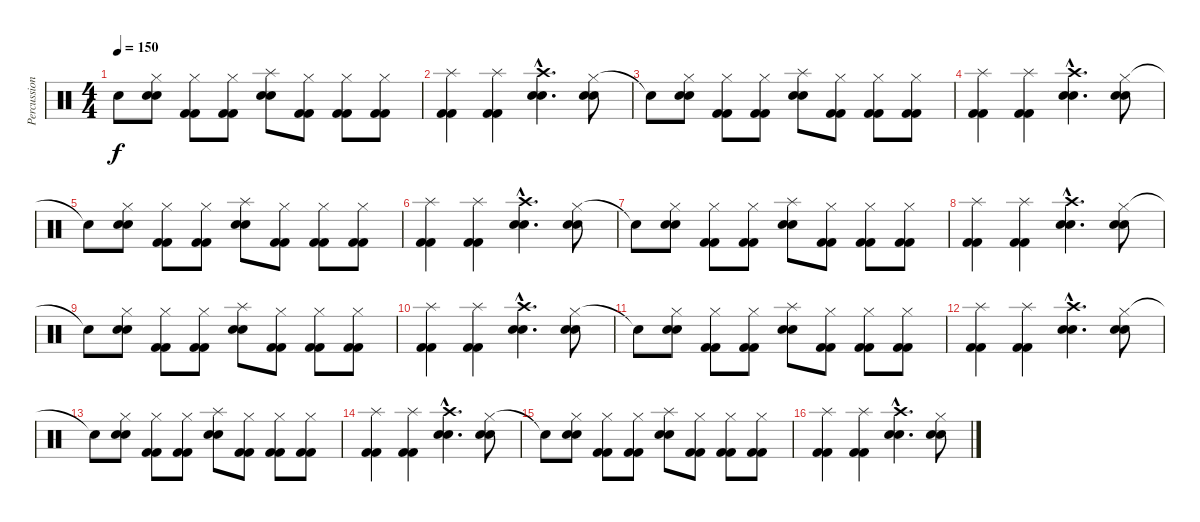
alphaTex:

\track ("Percussion" "Percussion") {instrument percussion}
\staff {score}
\articulation defaults
\ts (4 4)
\tempo 150
\clef neutral
\ks c "Snare (hit) 2"{t}.8{dy f}
("Hi-Hat (closed)" "Snare (hit) 2" "Snare (hit) 2").8 ("Hi-Hat (closed)" "Kick (hit) 2" "Kick (hit) 2").8 ("Hi-Hat (closed)" "Kick (hit) 2" "Kick (hit) 2").8 ("Splash (hit)" "Snare (hit) 2" "Snare (hit) 2").8 ("Hi-Hat (closed)" "Kick (hit) 2" "Kick (hit) 2").8 ("Hi-Hat (closed)" "Kick (hit) 2" "Kick (hit) 2").8 ("Hi-Hat (closed)" "Kick (hit) 2" "Kick (hit) 2").8 |
("Splash (hit)" "Kick (hit) 2" "Kick (hit) 2").4 ("Splash (hit)" "Kick (hit) 2" "Kick (hit) 2").4 ("Crash high (hit)"{hac} "Snare (hit) 2"{hac} "Snare (hit) 2"{hac}).4{d} ("Hi-Hat (closed)" "Snare (hit) 2" "Snare (hit) 2").8 |
"Snare (hit) 2"{t}.8 ("Hi-Hat (closed)" "Snare (hit) 2" "Snare (hit) 2").8 ("Hi-Hat (closed)" "Kick (hit) 2" "Kick (hit) 2").8 ("Hi-Hat (closed)" "Kick (hit) 2" "Kick (hit) 2").8 ("Splash (hit)" "Snare (hit) 2" "Snare (hit) 2").8 ("Hi-Hat (closed)" "Kick (hit) 2" "Kick (hit) 2").8 ("Hi-Hat (closed)" "Kick (hit) 2" "Kick (hit) 2").8 ("Hi-Hat (closed)" "Kick (hit) 2" "Kick (hit) 2").8 |
("Splash (hit)" "Kick (hit) 2" "Kick (hit) 2").4 ("Splash (hit)" "Kick (hit) 2" "Kick (hit) 2").4 ("Crash high (hit)"{hac} "Snare (hit) 2"{hac} "Snare (hit) 2"{hac}).4{d} ("Hi-Hat (closed)" "Snare (hit) 2" "Snare (hit) 2").8 |
"Snare (hit) 2"{t}.8 ("Hi-Hat (closed)" "Snare (hit) 2" "Snare (hit) 2").8 ("Hi-Hat (closed)" "Kick (hit) 2" "Kick (hit) 2").8 ("Hi-Hat (closed)" "Kick (hit) 2" "Kick (hit) 2").8 ("Splash (hit)" "Snare (hit) 2" "Snare (hit) 2").8 ("Hi-Hat (closed)" "Kick (hit) 2" "Kick (hit) 2").8 ("Hi-Hat (closed)" "Kick (hit) 2" "Kick (hit) 2").8 ("Hi-Hat (closed)" "Kick (hit) 2" "Kick (hit) 2").8 |
("Splash (hit)" "Kick (hit) 2" "Kick (hit) 2").4 ("Splash (hit)" "Kick (hit) 2" "Kick (hit) 2").4 ("Crash high (hit)"{hac} "Snare (hit) 2"{hac} "Snare (hit) 2"{hac}).4{d} ("Hi-Hat (closed)" "Snare (hit) 2" "Snare (hit) 2").8 |
"Snare (hit) 2"{t}.8 ("Hi-Hat (closed)" "Snare (hit) 2" "Snare (hit) 2").8 ("Hi-Hat (closed)" "Kick (hit) 2" "Kick (hit) 2").8 ("Hi-Hat (closed)" "Kick (hit) 2" "Kick (hit) 2").8 ("Splash (hit)" "Snare (hit) 2" "Snare (hit) 2").8 ("Hi-Hat (closed)" "Kick (hit) 2" "Kick (hit) 2").8 ("Hi-Hat (closed)" "Kick (hit) 2" "Kick (hit) 2").8 ("Hi-Hat (closed)" "Kick (hit) 2" "Kick (hit) 2").8 |
("Splash (hit)" "Kick (hit) 2" "Kick (hit) 2").4 ("Splash (hit)" "Kick (hit) 2" "Kick (hit) 2").4 ("Crash high (hit)"{hac} "Snare (hit) 2"{hac} "Snare (hit) 2"{hac}).4{d} ("Hi-Hat (closed)" "Snare (hit) 2" "Snare (hit) 2").8 |
"Snare (hit) 2"{t}.8 ("Hi-Hat (closed)" "Snare (hit) 2" "Snare (hit) 2").8 ("Hi-Hat (closed)" "Kick (hit) 2" "Kick (hit) 2").8 ("Hi-Hat (closed)" "Kick (hit) 2" "Kick (hit) 2").8 ("Splash (hit)" "Snare (hit) 2" "Snare (hit) 2").8 ("Hi-Hat (closed)" "Kick (hit) 2" "Kick (hit) 2").8 ("Hi-Hat (closed)" "Kick (hit) 2" "Kick (hit) 2").8 ("Hi-Hat (closed)" "Kick (hit) 2" "Kick (hit) 2").8 |
("Splash (hit)" "Kick (hit) 2" "Kick (hit) 2").4 ("Splash (hit)" "Kick (hit) 2" "Kick (hit) 2").4 ("Crash high (hit)"{hac} "Snare (hit) 2"{hac} "Snare (hit) 2"{hac}).4{d} ("Hi-Hat (closed)" "Snare (hit) 2" "Snare (hit) 2").8 |
"Snare (hit) 2"{t}.8 ("Hi-Hat (closed)" "Snare (hit) 2" "Snare (hit) 2").8 ("Hi-Hat (closed)" "Kick (hit) 2" "Kick (hit) 2").8 ("Hi-Hat (closed)" "Kick (hit) 2" "Kick (hit) 2").8 ("Splash (hit)" "Snare (hit) 2" "Snare (hit) 2").8 ("Hi-Hat (closed)" "Kick (hit) 2" "Kick (hit) 2").8 ("Hi-Hat (closed)" "Kick (hit) 2" "Kick (hit) 2").8 ("Hi-Hat (closed)" "Kick (hit) 2" "Kick (hit) 2").8 |
("Splash (hit)" "Kick (hit) 2" "Kick (hit) 2").4 ("Splash (hit)" "Kick (hit) 2" "Kick (hit) 2").4 ("Crash high (hit)"{hac} "Snare (hit) 2"{hac} "Snare (hit) 2"{hac}).4{d} ("Hi-Hat (closed)" "Snare (hit) 2" "Snare (hit) 2").8 |
"Snare (hit) 2"{t}.8 ("Hi-Hat (closed)" "Snare (hit) 2" "Snare (hit) 2").8 ("Hi-Hat (closed)" "Kick (hit) 2" "Kick (hit) 2").8 ("Hi-Hat (closed)" "Kick (hit) 2" "Kick (hit) 2").8 ("Splash (hit)" "Snare (hit) 2" "Snare (hit) 2").8 ("Hi-Hat (closed)" "Kick (hit) 2" "Kick (hit) 2").8 ("Hi-Hat (closed)" "Kick (hit) 2" "Kick (hit) 2").8 ("Hi-Hat (closed)" "Kick (hit) 2" "Kick (hit) 2").8 |
("Splash (hit)" "Kick (hit) 2" "Kick (hit) 2").4 ("Splash (hit)" "Kick (hit) 2" "Kick (hit) 2").4 ("Crash high (hit)"{hac} "Snare (hit) 2"{hac} "Snare (hit) 2"{hac}).4{d} ("Hi-Hat (closed)" "Snare (hit) 2" "Snare (hit) 2").8 |
"Snare (hit) 2"{t}.8 ("Hi-Hat (closed)" "Snare (hit) 2" "Snare (hit) 2").8 ("Hi-Hat (closed)" "Kick (hit) 2" "Kick (hit) 2").8 ("Hi-Hat (closed)" "Kick (hit) 2" "Kick (hit) 2").8 ("Splash (hit)" "Snare (hit) 2" "Snare (hit) 2").8 ("Hi-Hat (closed)" "Kick (hit) 2" "Kick (hit) 2").8 ("Hi-Hat (closed)" "Kick (hit) 2" "Kick (hit) 2").8 ("Hi-Hat (closed)" "Kick (hit) 2" "Kick (hit) 2").8 |
("Splash (hit)" "Kick (hit) 2" "Kick (hit) 2").4 ("Splash (hit)" "Kick (hit) 2" "Kick (hit) 2").4 ("Crash high (hit)"{hac} "Snare (hit) 2"{hac} "Snare (hit) 2"{hac}).4{d} ("Hi-Hat (closed)" "Snare (hit) 2" "Snare (hit) 2").8
